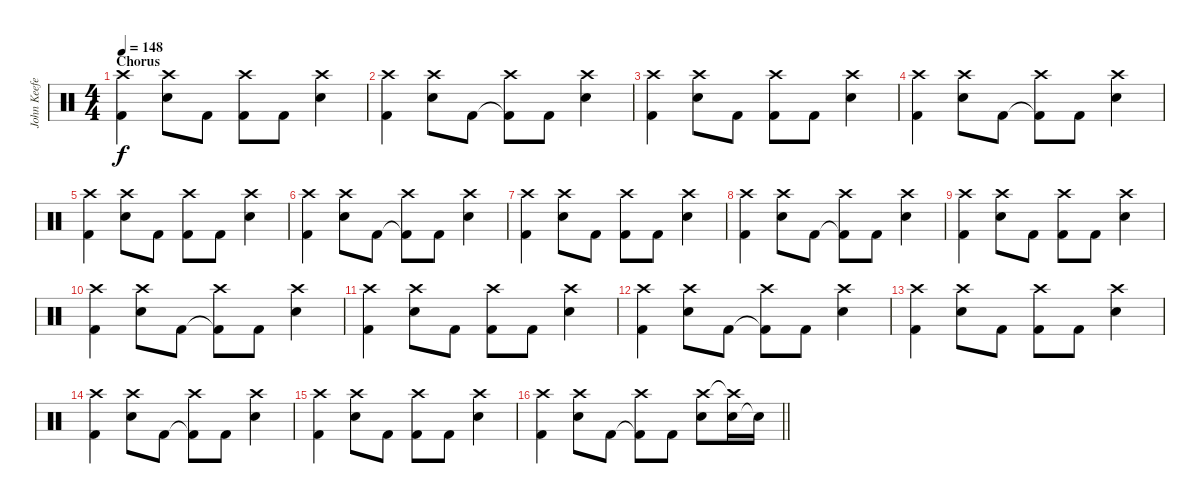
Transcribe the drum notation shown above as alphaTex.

\track ("John Keefe (Percussion)" "John Keefe") {instrument percussion}
\staff {score}
\articulation defaults
\ts (4 4)
\section ("" "Chorus")
\tempo 148
\clef neutral
\ks c
("Crash high (hit)" "Kick (hit) 2").4{dy f} ("Snare (hit) 2" "Crash high (hit)").8 "Kick (hit) 2".8 ("Kick (hit) 2" "Crash high (hit)").8 "Kick (hit) 2".8 ("Snare (hit) 2" "Crash high (hit)").4 |
("Kick (hit) 2" "Crash high (hit)").4 ("Snare (hit) 2" "Crash high (hit)").8 "Kick (hit) 2".8 ("Kick (hit) 2"{t} "Crash high (hit)").8 "Kick (hit) 2".8 ("Snare (hit) 2" "Crash high (hit)").4 |
("Crash high (hit)" "Kick (hit) 2").4 ("Snare (hit) 2" "Crash high (hit)").8 "Kick (hit) 2".8 ("Kick (hit) 2" "Crash high (hit)").8 "Kick (hit) 2".8 ("Snare (hit) 2" "Crash high (hit)").4 |
("Kick (hit) 2" "Crash high (hit)").4 ("Snare (hit) 2" "Crash high (hit)").8 "Kick (hit) 2".8 ("Kick (hit) 2"{t} "Crash high (hit)").8 "Kick (hit) 2".8 ("Snare (hit) 2" "Crash high (hit)").4 |
("Crash high (hit)" "Kick (hit) 2").4 ("Snare (hit) 2" "Crash high (hit)").8 "Kick (hit) 2".8 ("Kick (hit) 2" "Crash high (hit)").8 "Kick (hit) 2".8 ("Snare (hit) 2" "Crash high (hit)").4 |
("Kick (hit) 2" "Crash high (hit)").4 ("Snare (hit) 2" "Crash high (hit)").8 "Kick (hit) 2".8 ("Kick (hit) 2"{t} "Crash high (hit)").8 "Kick (hit) 2".8 ("Snare (hit) 2" "Crash high (hit)").4 |
("Crash high (hit)" "Kick (hit) 2").4 ("Snare (hit) 2" "Crash high (hit)").8 "Kick (hit) 2".8 ("Kick (hit) 2" "Crash high (hit)").8 "Kick (hit) 2".8 ("Snare (hit) 2" "Crash high (hit)").4 |
("Kick (hit) 2" "Crash high (hit)").4 ("Snare (hit) 2" "Crash high (hit)").8 "Kick (hit) 2".8 ("Kick (hit) 2"{t} "Crash high (hit)").8 "Kick (hit) 2".8 ("Snare (hit) 2" "Crash high (hit)").4 |
("Crash high (hit)" "Kick (hit) 2").4 ("Snare (hit) 2" "Crash high (hit)").8 "Kick (hit) 2".8 ("Kick (hit) 2" "Crash high (hit)").8 "Kick (hit) 2".8 ("Snare (hit) 2" "Crash high (hit)").4 |
("Kick (hit) 2" "Crash high (hit)").4 ("Snare (hit) 2" "Crash high (hit)").8 "Kick (hit) 2".8 ("Kick (hit) 2"{t} "Crash high (hit)").8 "Kick (hit) 2".8 ("Snare (hit) 2" "Crash high (hit)").4 |
("Crash high (hit)" "Kick (hit) 2").4 ("Snare (hit) 2" "Crash high (hit)").8 "Kick (hit) 2".8 ("Kick (hit) 2" "Crash high (hit)").8 "Kick (hit) 2".8 ("Snare (hit) 2" "Crash high (hit)").4 |
("Kick (hit) 2" "Crash high (hit)").4 ("Snare (hit) 2" "Crash high (hit)").8 "Kick (hit) 2".8 ("Kick (hit) 2"{t} "Crash high (hit)").8 "Kick (hit) 2".8 ("Snare (hit) 2" "Crash high (hit)").4 |
("Crash high (hit)" "Kick (hit) 2").4 ("Snare (hit) 2" "Crash high (hit)").8 "Kick (hit) 2".8 ("Kick (hit) 2" "Crash high (hit)").8 "Kick (hit) 2".8 ("Snare (hit) 2" "Crash high (hit)").4 |
("Kick (hit) 2" "Crash high (hit)").4 ("Snare (hit) 2" "Crash high (hit)").8 "Kick (hit) 2".8 ("Kick (hit) 2"{t} "Crash high (hit)").8 "Kick (hit) 2".8 ("Snare (hit) 2" "Crash high (hit)").4 |
("Crash high (hit)" "Kick (hit) 2").4 ("Snare (hit) 2" "Crash high (hit)").8 "Kick (hit) 2".8 ("Kick (hit) 2" "Crash high (hit)").8 "Kick (hit) 2".8 ("Snare (hit) 2" "Crash high (hit)").4 |
\barLineRight lightlight
("Kick (hit) 2" "Crash high (hit)").4 ("Snare (hit) 2" "Crash high (hit)").8 "Kick (hit) 2".8 ("Kick (hit) 2"{t} "Crash high (hit)").8 "Kick (hit) 2".8 ("Snare (hit) 2" "Crash high (hit)").8 ("Snare (hit) 2" "Crash high (hit)"{t}).16 "Snare (hit) 2"{t}.16
